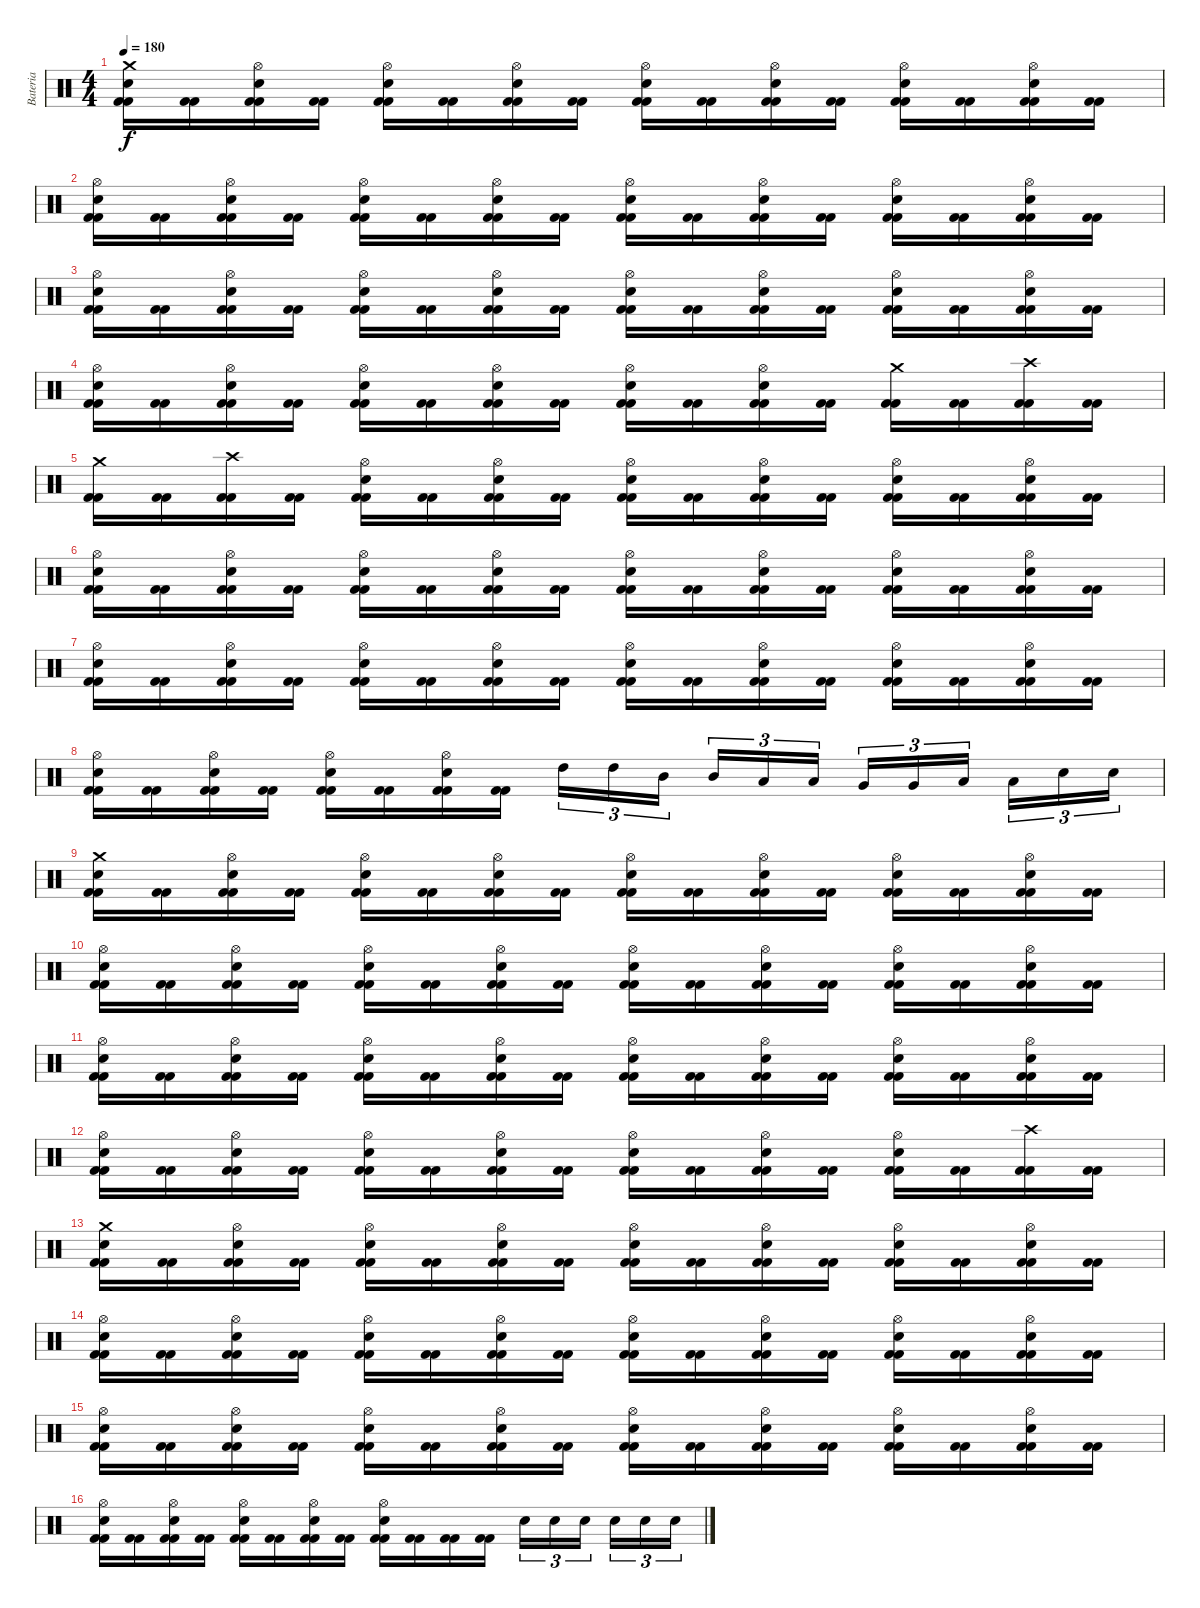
\track ("Bateria" "Bateria") {instrument percussion}
\staff {score}
\articulation defaults
\ts (4 4)
\tempo 180
\clef neutral
\ks c
("Kick (hit) 2" "Kick (hit) 2" "Electric Snare (hit)" "Crash medium (hit)").16{dy f} ("Kick (hit) 2" "Kick (hit) 2").16 ("Kick (hit) 2" "Kick (hit) 2" "Hi-Hat (open)" "Electric Snare (hit)").16 ("Kick (hit) 2" "Kick (hit) 2").16 ("Kick (hit) 2" "Kick (hit) 2" "Electric Snare (hit)" "Hi-Hat (open)").16 ("Kick (hit) 2" "Kick (hit) 2").16 ("Kick (hit) 2" "Kick (hit) 2" "Hi-Hat (open)" "Electric Snare (hit)").16 ("Kick (hit) 2" "Kick (hit) 2").16 ("Kick (hit) 2" "Kick (hit) 2" "Electric Snare (hit)" "Hi-Hat (open)").16 ("Kick (hit) 2" "Kick (hit) 2").16 ("Kick (hit) 2" "Kick (hit) 2" "Hi-Hat (open)" "Electric Snare (hit)").16 ("Kick (hit) 2" "Kick (hit) 2").16 ("Kick (hit) 2" "Kick (hit) 2" "Electric Snare (hit)" "Hi-Hat (open)").16 ("Kick (hit) 2" "Kick (hit) 2").16 ("Kick (hit) 2" "Kick (hit) 2" "Hi-Hat (open)" "Electric Snare (hit)").16 ("Kick (hit) 2" "Kick (hit) 2").16 |
("Kick (hit) 2" "Kick (hit) 2" "Electric Snare (hit)" "Hi-Hat (open)").16 ("Kick (hit) 2" "Kick (hit) 2").16 ("Kick (hit) 2" "Kick (hit) 2" "Hi-Hat (open)" "Electric Snare (hit)").16 ("Kick (hit) 2" "Kick (hit) 2").16 ("Kick (hit) 2" "Kick (hit) 2" "Electric Snare (hit)" "Hi-Hat (open)").16 ("Kick (hit) 2" "Kick (hit) 2").16 ("Kick (hit) 2" "Kick (hit) 2" "Hi-Hat (open)" "Electric Snare (hit)").16 ("Kick (hit) 2" "Kick (hit) 2").16 ("Kick (hit) 2" "Kick (hit) 2" "Electric Snare (hit)" "Hi-Hat (open)").16 ("Kick (hit) 2" "Kick (hit) 2").16 ("Kick (hit) 2" "Kick (hit) 2" "Hi-Hat (open)" "Electric Snare (hit)").16 ("Kick (hit) 2" "Kick (hit) 2").16 ("Kick (hit) 2" "Kick (hit) 2" "Electric Snare (hit)" "Hi-Hat (open)").16 ("Kick (hit) 2" "Kick (hit) 2").16 ("Kick (hit) 2" "Kick (hit) 2" "Hi-Hat (open)" "Electric Snare (hit)").16 ("Kick (hit) 2" "Kick (hit) 2").16 |
("Kick (hit) 2" "Kick (hit) 2" "Electric Snare (hit)" "Hi-Hat (open)").16 ("Kick (hit) 2" "Kick (hit) 2").16 ("Kick (hit) 2" "Kick (hit) 2" "Hi-Hat (open)" "Electric Snare (hit)").16 ("Kick (hit) 2" "Kick (hit) 2").16 ("Kick (hit) 2" "Kick (hit) 2" "Electric Snare (hit)" "Hi-Hat (open)").16 ("Kick (hit) 2" "Kick (hit) 2").16 ("Kick (hit) 2" "Kick (hit) 2" "Hi-Hat (open)" "Electric Snare (hit)").16 ("Kick (hit) 2" "Kick (hit) 2").16 ("Kick (hit) 2" "Kick (hit) 2" "Electric Snare (hit)" "Hi-Hat (open)").16 ("Kick (hit) 2" "Kick (hit) 2").16 ("Kick (hit) 2" "Kick (hit) 2" "Hi-Hat (open)" "Electric Snare (hit)").16 ("Kick (hit) 2" "Kick (hit) 2").16 ("Kick (hit) 2" "Kick (hit) 2" "Electric Snare (hit)" "Hi-Hat (open)").16 ("Kick (hit) 2" "Kick (hit) 2").16 ("Kick (hit) 2" "Kick (hit) 2" "Hi-Hat (open)" "Electric Snare (hit)").16 ("Kick (hit) 2" "Kick (hit) 2").16 |
("Kick (hit) 2" "Kick (hit) 2" "Electric Snare (hit)" "Hi-Hat (open)").16 ("Kick (hit) 2" "Kick (hit) 2").16 ("Kick (hit) 2" "Kick (hit) 2" "Hi-Hat (open)" "Electric Snare (hit)").16 ("Kick (hit) 2" "Kick (hit) 2").16 ("Kick (hit) 2" "Kick (hit) 2" "Electric Snare (hit)" "Hi-Hat (open)").16 ("Kick (hit) 2" "Kick (hit) 2").16 ("Kick (hit) 2" "Kick (hit) 2" "Hi-Hat (open)" "Electric Snare (hit)").16 ("Kick (hit) 2" "Kick (hit) 2").16 ("Kick (hit) 2" "Kick (hit) 2" "Electric Snare (hit)" "Hi-Hat (open)").16 ("Kick (hit) 2" "Kick (hit) 2").16 ("Kick (hit) 2" "Kick (hit) 2" "Hi-Hat (open)" "Electric Snare (hit)").16 ("Kick (hit) 2" "Kick (hit) 2").16 ("Kick (hit) 2" "Kick (hit) 2" "Crash medium (hit)").16 ("Kick (hit) 2" "Kick (hit) 2").16 ("Kick (hit) 2" "Kick (hit) 2" "Crash high (hit)").16 ("Kick (hit) 2" "Kick (hit) 2").16 |
("Kick (hit) 2" "Kick (hit) 2" "Crash medium (hit)").16 ("Kick (hit) 2" "Kick (hit) 2").16 ("Kick (hit) 2" "Kick (hit) 2" "Crash high (hit)").16 ("Kick (hit) 2" "Kick (hit) 2").16 ("Kick (hit) 2" "Kick (hit) 2" "Electric Snare (hit)" "Hi-Hat (open)").16 ("Kick (hit) 2" "Kick (hit) 2").16 ("Kick (hit) 2" "Kick (hit) 2" "Hi-Hat (open)" "Electric Snare (hit)").16 ("Kick (hit) 2" "Kick (hit) 2").16 ("Kick (hit) 2" "Kick (hit) 2" "Electric Snare (hit)" "Hi-Hat (open)").16 ("Kick (hit) 2" "Kick (hit) 2").16 ("Kick (hit) 2" "Kick (hit) 2" "Hi-Hat (open)" "Electric Snare (hit)").16 ("Kick (hit) 2" "Kick (hit) 2").16 ("Kick (hit) 2" "Kick (hit) 2" "Electric Snare (hit)" "Hi-Hat (open)").16 ("Kick (hit) 2" "Kick (hit) 2").16 ("Kick (hit) 2" "Kick (hit) 2" "Hi-Hat (open)" "Electric Snare (hit)").16 ("Kick (hit) 2" "Kick (hit) 2").16 |
("Kick (hit) 2" "Kick (hit) 2" "Electric Snare (hit)" "Hi-Hat (open)").16 ("Kick (hit) 2" "Kick (hit) 2").16 ("Kick (hit) 2" "Kick (hit) 2" "Hi-Hat (open)" "Electric Snare (hit)").16 ("Kick (hit) 2" "Kick (hit) 2").16 ("Kick (hit) 2" "Kick (hit) 2" "Electric Snare (hit)" "Hi-Hat (open)").16 ("Kick (hit) 2" "Kick (hit) 2").16 ("Kick (hit) 2" "Kick (hit) 2" "Hi-Hat (open)" "Electric Snare (hit)").16 ("Kick (hit) 2" "Kick (hit) 2").16 ("Kick (hit) 2" "Kick (hit) 2" "Electric Snare (hit)" "Hi-Hat (open)").16 ("Kick (hit) 2" "Kick (hit) 2").16 ("Kick (hit) 2" "Kick (hit) 2" "Hi-Hat (open)" "Electric Snare (hit)").16 ("Kick (hit) 2" "Kick (hit) 2").16 ("Kick (hit) 2" "Kick (hit) 2" "Electric Snare (hit)" "Hi-Hat (open)").16 ("Kick (hit) 2" "Kick (hit) 2").16 ("Kick (hit) 2" "Kick (hit) 2" "Hi-Hat (open)" "Electric Snare (hit)").16 ("Kick (hit) 2" "Kick (hit) 2").16 |
("Kick (hit) 2" "Kick (hit) 2" "Electric Snare (hit)" "Hi-Hat (open)").16 ("Kick (hit) 2" "Kick (hit) 2").16 ("Kick (hit) 2" "Kick (hit) 2" "Hi-Hat (open)" "Electric Snare (hit)").16 ("Kick (hit) 2" "Kick (hit) 2").16 ("Kick (hit) 2" "Kick (hit) 2" "Electric Snare (hit)" "Hi-Hat (open)").16 ("Kick (hit) 2" "Kick (hit) 2").16 ("Kick (hit) 2" "Kick (hit) 2" "Hi-Hat (open)" "Electric Snare (hit)").16 ("Kick (hit) 2" "Kick (hit) 2").16 ("Kick (hit) 2" "Kick (hit) 2" "Electric Snare (hit)" "Hi-Hat (open)").16 ("Kick (hit) 2" "Kick (hit) 2").16 ("Kick (hit) 2" "Kick (hit) 2" "Hi-Hat (open)" "Electric Snare (hit)").16 ("Kick (hit) 2" "Kick (hit) 2").16 ("Kick (hit) 2" "Kick (hit) 2" "Electric Snare (hit)" "Hi-Hat (open)").16 ("Kick (hit) 2" "Kick (hit) 2").16 ("Kick (hit) 2" "Kick (hit) 2" "Hi-Hat (open)" "Electric Snare (hit)").16 ("Kick (hit) 2" "Kick (hit) 2").16 |
("Kick (hit) 2" "Kick (hit) 2" "Electric Snare (hit)" "Hi-Hat (open)").16 ("Kick (hit) 2" "Kick (hit) 2").16 ("Kick (hit) 2" "Kick (hit) 2" "Hi-Hat (open)" "Electric Snare (hit)").16 ("Kick (hit) 2" "Kick (hit) 2").16 ("Kick (hit) 2" "Kick (hit) 2" "Electric Snare (hit)" "Hi-Hat (open)").16 ("Kick (hit) 2" "Kick (hit) 2").16 ("Kick (hit) 2" "Kick (hit) 2" "Hi-Hat (open)" "Electric Snare (hit)").16 ("Kick (hit) 2" "Kick (hit) 2").16 "High Tom (hit)".16{tu (3 2)} "High Tom (hit)".16{tu (3 2)} "Mid Tom (hit)".16{tu (3 2)} "Mid Tom (hit)".16{tu (3 2)} "Low Tom (hit)".16{tu (3 2)} "Low Tom (hit)".16{tu (3 2)} "Very Low Tom (hit)".16{tu (3 2)} "Very Low Tom (hit)".16{tu (3 2)} "Low Floor Tom (hit)".16{tu (3 2)} "Low Floor Tom (hit)".16{tu (3 2)} "Electric Snare (hit)".16{tu (3 2)} "Electric Snare (hit)".16{tu (3 2)} |
("Kick (hit) 2" "Kick (hit) 2" "Electric Snare (hit)" "Crash medium (hit)").16 ("Kick (hit) 2" "Kick (hit) 2").16 ("Kick (hit) 2" "Kick (hit) 2" "Hi-Hat (open)" "Electric Snare (hit)").16 ("Kick (hit) 2" "Kick (hit) 2").16 ("Kick (hit) 2" "Kick (hit) 2" "Electric Snare (hit)" "Hi-Hat (open)").16 ("Kick (hit) 2" "Kick (hit) 2").16 ("Kick (hit) 2" "Kick (hit) 2" "Hi-Hat (open)" "Electric Snare (hit)").16 ("Kick (hit) 2" "Kick (hit) 2").16 ("Kick (hit) 2" "Kick (hit) 2" "Electric Snare (hit)" "Hi-Hat (open)").16 ("Kick (hit) 2" "Kick (hit) 2").16 ("Kick (hit) 2" "Kick (hit) 2" "Hi-Hat (open)" "Electric Snare (hit)").16 ("Kick (hit) 2" "Kick (hit) 2").16 ("Kick (hit) 2" "Kick (hit) 2" "Electric Snare (hit)" "Hi-Hat (open)").16 ("Kick (hit) 2" "Kick (hit) 2").16 ("Kick (hit) 2" "Kick (hit) 2" "Hi-Hat (open)" "Electric Snare (hit)").16 ("Kick (hit) 2" "Kick (hit) 2").16 |
("Kick (hit) 2" "Kick (hit) 2" "Electric Snare (hit)" "Hi-Hat (open)").16 ("Kick (hit) 2" "Kick (hit) 2").16 ("Kick (hit) 2" "Kick (hit) 2" "Hi-Hat (open)" "Electric Snare (hit)").16 ("Kick (hit) 2" "Kick (hit) 2").16 ("Kick (hit) 2" "Kick (hit) 2" "Electric Snare (hit)" "Hi-Hat (open)").16 ("Kick (hit) 2" "Kick (hit) 2").16 ("Kick (hit) 2" "Kick (hit) 2" "Hi-Hat (open)" "Electric Snare (hit)").16 ("Kick (hit) 2" "Kick (hit) 2").16 ("Kick (hit) 2" "Kick (hit) 2" "Electric Snare (hit)" "Hi-Hat (open)").16 ("Kick (hit) 2" "Kick (hit) 2").16 ("Kick (hit) 2" "Kick (hit) 2" "Hi-Hat (open)" "Electric Snare (hit)").16 ("Kick (hit) 2" "Kick (hit) 2").16 ("Kick (hit) 2" "Kick (hit) 2" "Electric Snare (hit)" "Hi-Hat (open)").16 ("Kick (hit) 2" "Kick (hit) 2").16 ("Kick (hit) 2" "Kick (hit) 2" "Hi-Hat (open)" "Electric Snare (hit)").16 ("Kick (hit) 2" "Kick (hit) 2").16 |
("Kick (hit) 2" "Kick (hit) 2" "Electric Snare (hit)" "Hi-Hat (open)").16 ("Kick (hit) 2" "Kick (hit) 2").16 ("Kick (hit) 2" "Kick (hit) 2" "Hi-Hat (open)" "Electric Snare (hit)").16 ("Kick (hit) 2" "Kick (hit) 2").16 ("Kick (hit) 2" "Kick (hit) 2" "Electric Snare (hit)" "Hi-Hat (open)").16 ("Kick (hit) 2" "Kick (hit) 2").16 ("Kick (hit) 2" "Kick (hit) 2" "Hi-Hat (open)" "Electric Snare (hit)").16 ("Kick (hit) 2" "Kick (hit) 2").16 ("Kick (hit) 2" "Kick (hit) 2" "Electric Snare (hit)" "Hi-Hat (open)").16 ("Kick (hit) 2" "Kick (hit) 2").16 ("Kick (hit) 2" "Kick (hit) 2" "Hi-Hat (open)" "Electric Snare (hit)").16 ("Kick (hit) 2" "Kick (hit) 2").16 ("Kick (hit) 2" "Kick (hit) 2" "Electric Snare (hit)" "Hi-Hat (open)").16 ("Kick (hit) 2" "Kick (hit) 2").16 ("Kick (hit) 2" "Kick (hit) 2" "Hi-Hat (open)" "Electric Snare (hit)").16 ("Kick (hit) 2" "Kick (hit) 2").16 |
("Kick (hit) 2" "Kick (hit) 2" "Electric Snare (hit)" "Hi-Hat (open)").16 ("Kick (hit) 2" "Kick (hit) 2").16 ("Kick (hit) 2" "Kick (hit) 2" "Hi-Hat (open)" "Electric Snare (hit)").16 ("Kick (hit) 2" "Kick (hit) 2").16 ("Kick (hit) 2" "Kick (hit) 2" "Electric Snare (hit)" "Hi-Hat (open)").16 ("Kick (hit) 2" "Kick (hit) 2").16 ("Kick (hit) 2" "Kick (hit) 2" "Hi-Hat (open)" "Electric Snare (hit)").16 ("Kick (hit) 2" "Kick (hit) 2").16 ("Kick (hit) 2" "Kick (hit) 2" "Electric Snare (hit)" "Hi-Hat (open)").16 ("Kick (hit) 2" "Kick (hit) 2").16 ("Kick (hit) 2" "Kick (hit) 2" "Hi-Hat (open)" "Electric Snare (hit)").16 ("Kick (hit) 2" "Kick (hit) 2").16 ("Kick (hit) 2" "Kick (hit) 2" "Electric Snare (hit)" "Hi-Hat (open)").16 ("Kick (hit) 2" "Kick (hit) 2").16 ("Kick (hit) 2" "Kick (hit) 2" "Crash high (hit)").16 ("Kick (hit) 2" "Kick (hit) 2").16 |
("Kick (hit) 2" "Kick (hit) 2" "Electric Snare (hit)" "Crash medium (hit)").16 ("Kick (hit) 2" "Kick (hit) 2").16 ("Kick (hit) 2" "Kick (hit) 2" "Hi-Hat (open)" "Electric Snare (hit)").16 ("Kick (hit) 2" "Kick (hit) 2").16 ("Kick (hit) 2" "Kick (hit) 2" "Electric Snare (hit)" "Hi-Hat (open)").16 ("Kick (hit) 2" "Kick (hit) 2").16 ("Kick (hit) 2" "Kick (hit) 2" "Hi-Hat (open)" "Electric Snare (hit)").16 ("Kick (hit) 2" "Kick (hit) 2").16 ("Kick (hit) 2" "Kick (hit) 2" "Electric Snare (hit)" "Hi-Hat (open)").16 ("Kick (hit) 2" "Kick (hit) 2").16 ("Kick (hit) 2" "Kick (hit) 2" "Hi-Hat (open)" "Electric Snare (hit)").16 ("Kick (hit) 2" "Kick (hit) 2").16 ("Kick (hit) 2" "Kick (hit) 2" "Electric Snare (hit)" "Hi-Hat (open)").16 ("Kick (hit) 2" "Kick (hit) 2").16 ("Kick (hit) 2" "Kick (hit) 2" "Hi-Hat (open)" "Electric Snare (hit)").16 ("Kick (hit) 2" "Kick (hit) 2").16 |
("Kick (hit) 2" "Kick (hit) 2" "Electric Snare (hit)" "Hi-Hat (open)").16 ("Kick (hit) 2" "Kick (hit) 2").16 ("Kick (hit) 2" "Kick (hit) 2" "Hi-Hat (open)" "Electric Snare (hit)").16 ("Kick (hit) 2" "Kick (hit) 2").16 ("Kick (hit) 2" "Kick (hit) 2" "Electric Snare (hit)" "Hi-Hat (open)").16 ("Kick (hit) 2" "Kick (hit) 2").16 ("Kick (hit) 2" "Kick (hit) 2" "Hi-Hat (open)" "Electric Snare (hit)").16 ("Kick (hit) 2" "Kick (hit) 2").16 ("Kick (hit) 2" "Kick (hit) 2" "Electric Snare (hit)" "Hi-Hat (open)").16 ("Kick (hit) 2" "Kick (hit) 2").16 ("Kick (hit) 2" "Kick (hit) 2" "Hi-Hat (open)" "Electric Snare (hit)").16 ("Kick (hit) 2" "Kick (hit) 2").16 ("Kick (hit) 2" "Kick (hit) 2" "Electric Snare (hit)" "Hi-Hat (open)").16 ("Kick (hit) 2" "Kick (hit) 2").16 ("Kick (hit) 2" "Kick (hit) 2" "Hi-Hat (open)" "Electric Snare (hit)").16 ("Kick (hit) 2" "Kick (hit) 2").16 |
("Kick (hit) 2" "Kick (hit) 2" "Electric Snare (hit)" "Hi-Hat (open)").16 ("Kick (hit) 2" "Kick (hit) 2").16 ("Kick (hit) 2" "Kick (hit) 2" "Hi-Hat (open)" "Electric Snare (hit)").16 ("Kick (hit) 2" "Kick (hit) 2").16 ("Kick (hit) 2" "Kick (hit) 2" "Electric Snare (hit)" "Hi-Hat (open)").16 ("Kick (hit) 2" "Kick (hit) 2").16 ("Kick (hit) 2" "Kick (hit) 2" "Hi-Hat (open)" "Electric Snare (hit)").16 ("Kick (hit) 2" "Kick (hit) 2").16 ("Kick (hit) 2" "Kick (hit) 2" "Electric Snare (hit)" "Hi-Hat (open)").16 ("Kick (hit) 2" "Kick (hit) 2").16 ("Kick (hit) 2" "Kick (hit) 2" "Hi-Hat (open)" "Electric Snare (hit)").16 ("Kick (hit) 2" "Kick (hit) 2").16 ("Kick (hit) 2" "Kick (hit) 2" "Electric Snare (hit)" "Hi-Hat (open)").16 ("Kick (hit) 2" "Kick (hit) 2").16 ("Kick (hit) 2" "Kick (hit) 2" "Hi-Hat (open)" "Electric Snare (hit)").16 ("Kick (hit) 2" "Kick (hit) 2").16 |
("Kick (hit) 2" "Kick (hit) 2" "Electric Snare (hit)" "Hi-Hat (open)").16 ("Kick (hit) 2" "Kick (hit) 2").16 ("Kick (hit) 2" "Kick (hit) 2" "Hi-Hat (open)" "Electric Snare (hit)").16 ("Kick (hit) 2" "Kick (hit) 2").16 ("Kick (hit) 2" "Kick (hit) 2" "Electric Snare (hit)" "Hi-Hat (open)").16 ("Kick (hit) 2" "Kick (hit) 2").16 ("Kick (hit) 2" "Kick (hit) 2" "Hi-Hat (open)" "Electric Snare (hit)").16 ("Kick (hit) 2" "Kick (hit) 2").16 ("Kick (hit) 2" "Kick (hit) 2" "Hi-Hat (open)" "Electric Snare (hit)").16 ("Kick (hit) 2" "Kick (hit) 2").16 ("Kick (hit) 2" "Kick (hit) 2").16 ("Kick (hit) 2" "Kick (hit) 2").16 "Electric Snare (hit)".16{tu (3 2)} "Electric Snare (hit)".16{tu (3 2)} "Electric Snare (hit)".16{tu (3 2)} "Electric Snare (hit)".16{tu (3 2)} "Electric Snare (hit)".16{tu (3 2)} "Electric Snare (hit)".16{tu (3 2)}
